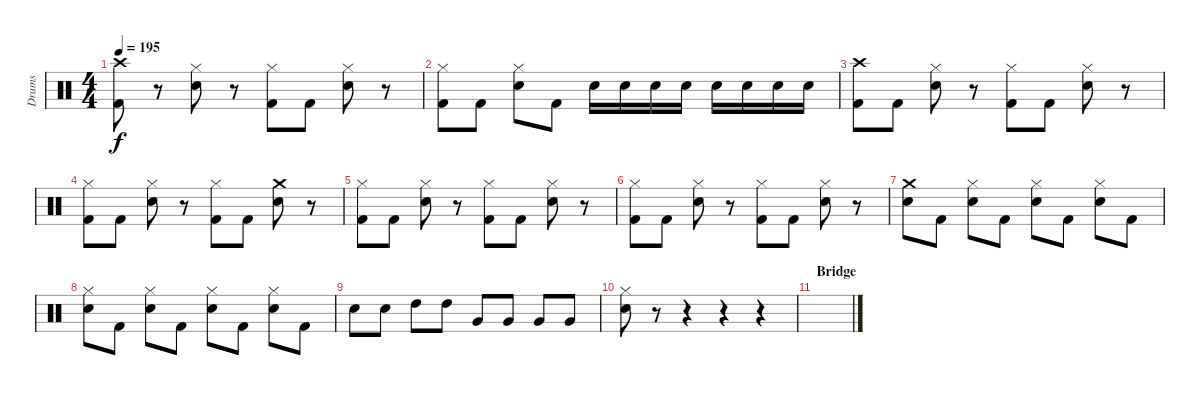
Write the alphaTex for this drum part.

\track ("Drums" "Drums") {instrument percussion}
\staff {score}
\articulation defaults
\ts (4 4)
\tempo 195
\clef neutral
\ks c
("Crash high (hit)" "Kick (hit) 2").8{dy f} r.8 ("Hi-Hat (closed)" "Electric Snare (hit)").8 r.8 ("Hi-Hat (closed)" "Kick (hit) 2").8 "Kick (hit) 2".8 ("Hi-Hat (closed)" "Electric Snare (hit)").8 r.8 |
("Hi-Hat (closed)" "Kick (hit) 2").8 "Kick (hit) 2".8 ("Hi-Hat (closed)" "Electric Snare (hit)").8 "Kick (hit) 2".8 "Electric Snare (hit)".16 "Electric Snare (hit)".16 "Electric Snare (hit)".16 "Electric Snare (hit)".16 "Electric Snare (hit)".16 "Electric Snare (hit)".16 "Electric Snare (hit)".16 "Electric Snare (hit)".16 |
("Crash high (hit)" "Kick (hit) 2").8 "Kick (hit) 2".8 ("Hi-Hat (closed)" "Electric Snare (hit)").8 r.8 ("Hi-Hat (closed)" "Kick (hit) 2").8 "Kick (hit) 2".8 ("Hi-Hat (closed)" "Electric Snare (hit)").8 r.8 |
("Hi-Hat (closed)" "Kick (hit) 2").8 "Kick (hit) 2".8 ("Hi-Hat (closed)" "Electric Snare (hit)").8 r.8 ("Hi-Hat (closed)" "Kick (hit) 2").8 "Kick (hit) 2".8 ("Crash medium (hit)" "Electric Snare (hit)").8 r.8 |
("Hi-Hat (closed)" "Kick (hit) 2").8 "Kick (hit) 2".8 ("Hi-Hat (closed)" "Electric Snare (hit)").8 r.8 ("Hi-Hat (closed)" "Kick (hit) 2").8 "Kick (hit) 2".8 ("Hi-Hat (closed)" "Electric Snare (hit)").8 r.8 |
("Hi-Hat (closed)" "Kick (hit) 2").8 "Kick (hit) 2".8 ("Hi-Hat (closed)" "Electric Snare (hit)").8 r.8 ("Hi-Hat (closed)" "Kick (hit) 2").8 "Kick (hit) 2".8 ("Hi-Hat (closed)" "Electric Snare (hit)").8 r.8 |
("Crash medium (hit)" "Electric Snare (hit)").8 "Kick (hit) 2".8 ("Hi-Hat (closed)" "Electric Snare (hit)").8 "Kick (hit) 2".8 ("Hi-Hat (closed)" "Electric Snare (hit)").8 "Kick (hit) 2".8 ("Hi-Hat (closed)" "Electric Snare (hit)").8 "Kick (hit) 2".8 |
("Hi-Hat (closed)" "Electric Snare (hit)").8 "Kick (hit) 2".8 ("Hi-Hat (closed)" "Electric Snare (hit)").8 "Kick (hit) 2".8 ("Hi-Hat (closed)" "Electric Snare (hit)").8 "Kick (hit) 2".8 ("Hi-Hat (closed)" "Electric Snare (hit)").8 "Kick (hit) 2".8 |
"Electric Snare (hit)".8 "Electric Snare (hit)".8 "High Tom (hit)".8 "High Tom (hit)".8 "Very Low Tom (hit)".8 "Very Low Tom (hit)".8 "Very Low Tom (hit)".8 "Very Low Tom (hit)".8 |
("Hi-Hat (closed)" "Electric Snare (hit)").8 r.8 r.4 r.4 r.4 |
\section ("" "Bridge")
